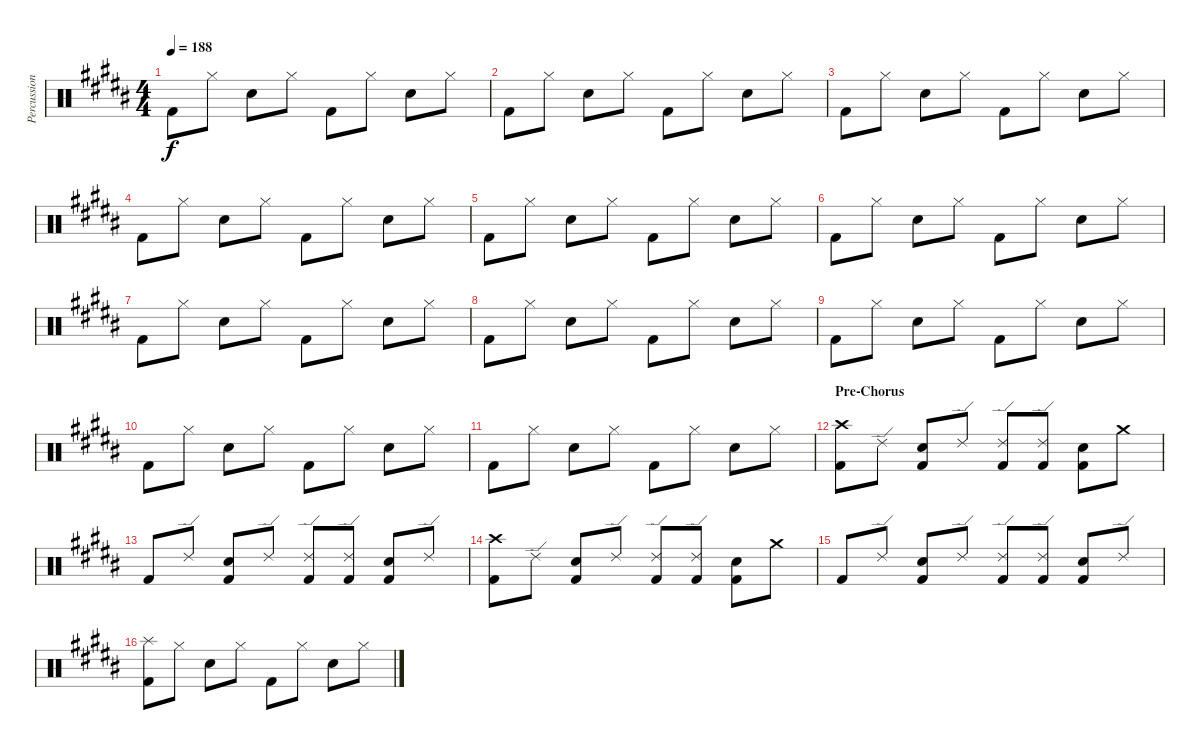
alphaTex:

\track ("Percussion" "Percussion") {instrument percussion}
\staff {score}
\articulation defaults
\ts (4 4)
\tempo 188
\clef neutral
\ks b "Kick (hit) 2".8{dy f} "Hi-Hat (closed)".8 "Electric Snare (hit)".8 "Hi-Hat (closed)".8 "Kick (hit) 2".8 "Hi-Hat (closed)".8 "Electric Snare (hit)".8 "Hi-Hat (closed)".8
|
"Kick (hit) 2".8 "Hi-Hat (closed)".8 "Electric Snare (hit)".8 "Hi-Hat (closed)".8 "Kick (hit) 2".8 "Hi-Hat (closed)".8 "Electric Snare (hit)".8 "Hi-Hat (closed)".8 |
"Kick (hit) 2".8 "Hi-Hat (closed)".8 "Electric Snare (hit)".8 "Hi-Hat (closed)".8 "Kick (hit) 2".8 "Hi-Hat (closed)".8 "Electric Snare (hit)".8 "Hi-Hat (closed)".8 |
"Kick (hit) 2".8 "Hi-Hat (closed)".8 "Electric Snare (hit)".8 "Hi-Hat (closed)".8 "Kick (hit) 2".8 "Hi-Hat (closed)".8 "Electric Snare (hit)".8 "Hi-Hat (closed)".8 |
"Kick (hit) 2".8 "Hi-Hat (closed)".8 "Electric Snare (hit)".8 "Hi-Hat (closed)".8 "Kick (hit) 2".8 "Hi-Hat (closed)".8 "Electric Snare (hit)".8 "Hi-Hat (closed)".8 |
"Kick (hit) 2".8 "Hi-Hat (closed)".8 "Electric Snare (hit)".8 "Hi-Hat (closed)".8 "Kick (hit) 2".8 "Hi-Hat (closed)".8 "Electric Snare (hit)".8 "Hi-Hat (closed)".8 |
"Kick (hit) 2".8 "Hi-Hat (closed)".8 "Electric Snare (hit)".8 "Hi-Hat (closed)".8 "Kick (hit) 2".8 "Hi-Hat (closed)".8 "Electric Snare (hit)".8 "Hi-Hat (closed)".8 |
"Kick (hit) 2".8 "Hi-Hat (closed)".8 "Electric Snare (hit)".8 "Hi-Hat (closed)".8 "Kick (hit) 2".8 "Hi-Hat (closed)".8 "Electric Snare (hit)".8 "Hi-Hat (closed)".8 |
"Kick (hit) 2".8 "Hi-Hat (closed)".8 "Electric Snare (hit)".8 "Hi-Hat (closed)".8 "Kick (hit) 2".8 "Hi-Hat (closed)".8 "Electric Snare (hit)".8 "Hi-Hat (closed)".8 |
"Kick (hit) 2".8 "Hi-Hat (closed)".8 "Electric Snare (hit)".8 "Hi-Hat (closed)".8 "Kick (hit) 2".8 "Hi-Hat (closed)".8 "Electric Snare (hit)".8 "Hi-Hat (closed)".8 |
"Kick (hit) 2".8 "Hi-Hat (closed)".8 "Electric Snare (hit)".8 "Hi-Hat (closed)".8 "Kick (hit) 2".8 "Hi-Hat (closed)".8 "Electric Snare (hit)".8 "Hi-Hat (closed)".8 |
\section ("" "Pre-Chorus")
("Crash high (hit)" "Kick (hit) 2").8 "Ride (edge) 2".8 ("Electric Snare (hit)" "Kick (hit) 2").8 "Ride (edge) 2".8 ("Ride (edge) 2" "Kick (hit) 2").8 ("Ride (edge) 2" "Kick (hit) 2").8 ("Electric Snare (hit)" "Kick (hit) 2").8 "Crash medium (hit)".8 |
"Kick (hit) 2".8 "Ride (edge) 2".8 ("Electric Snare (hit)" "Kick (hit) 2").8 "Ride (edge) 2".8 ("Ride (edge) 2" "Kick (hit) 2").8 ("Ride (edge) 2" "Kick (hit) 2").8 ("Electric Snare (hit)" "Kick (hit) 2").8 "Ride (edge) 2".8 |
("Crash high (hit)" "Kick (hit) 2").8 "Ride (edge) 2".8 ("Electric Snare (hit)" "Kick (hit) 2").8 "Ride (edge) 2".8 ("Ride (edge) 2" "Kick (hit) 2").8 ("Ride (edge) 2" "Kick (hit) 2").8 ("Electric Snare (hit)" "Kick (hit) 2").8 "Crash medium (hit)".8 |
"Kick (hit) 2".8 "Ride (edge) 2".8 ("Electric Snare (hit)" "Kick (hit) 2").8 "Ride (edge) 2".8 ("Ride (edge) 2" "Kick (hit) 2").8 ("Ride (edge) 2" "Kick (hit) 2").8 ("Electric Snare (hit)" "Kick (hit) 2").8 "Ride (edge) 2".8 |
("Splash (hit)" "Kick (hit) 2").8 "Hi-Hat (closed)".8 "Electric Snare (hit)".8 "Hi-Hat (closed)".8 "Kick (hit) 2".8 "Hi-Hat (closed)".8 "Electric Snare (hit)".8 "Hi-Hat (closed)".8
